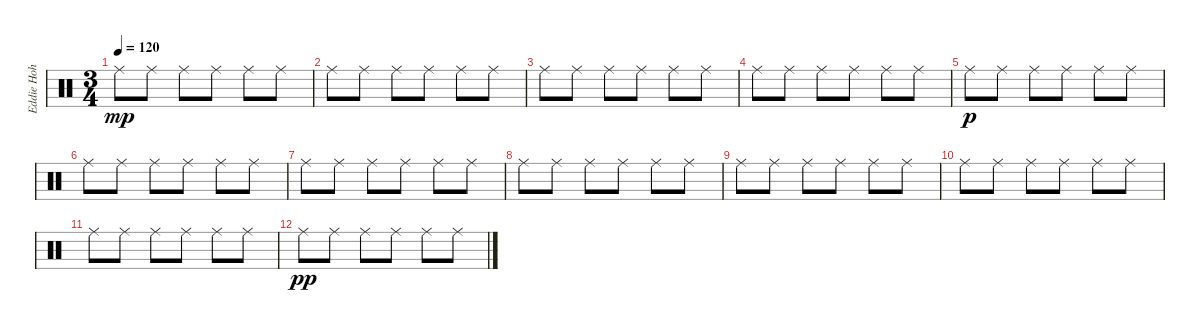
\track ("Eddie Hoh" "Eddie Hoh") {instrument percussion}
\staff {score}
\articulation defaults
\ts (3 4)
\tempo 120
\clef neutral
\ks c "Ride (middle)".8{dy mp} "Ride (middle)".8 "Ride (middle)".8 "Ride (middle)".8 "Ride (middle)".8 "Ride (middle)".8
|
"Ride (middle)".8 "Ride (middle)".8 "Ride (middle)".8 "Ride (middle)".8 "Ride (middle)".8 "Ride (middle)".8 |
"Ride (middle)".8 "Ride (middle)".8 "Ride (middle)".8 "Ride (middle)".8 "Ride (middle)".8 "Ride (middle)".8 |
"Ride (middle)".8 "Ride (middle)".8 "Ride (middle)".8 "Ride (middle)".8 "Ride (middle)".8 "Ride (middle)".8 |
"Ride (middle)".8{dy p} "Ride (middle)".8 "Ride (middle)".8 "Ride (middle)".8 "Ride (middle)".8 "Ride (middle)".8 |
"Ride (middle)".8 "Ride (middle)".8 "Ride (middle)".8 "Ride (middle)".8 "Ride (middle)".8 "Ride (middle)".8 |
"Ride (middle)".8 "Ride (middle)".8 "Ride (middle)".8 "Ride (middle)".8 "Ride (middle)".8 "Ride (middle)".8 |
"Ride (middle)".8 "Ride (middle)".8 "Ride (middle)".8 "Ride (middle)".8 "Ride (middle)".8 "Ride (middle)".8 |
"Ride (middle)".8 "Ride (middle)".8 "Ride (middle)".8 "Ride (middle)".8 "Ride (middle)".8 "Ride (middle)".8 |
"Ride (middle)".8 "Ride (middle)".8 "Ride (middle)".8 "Ride (middle)".8 "Ride (middle)".8 "Ride (middle)".8 |
"Ride (middle)".8 "Ride (middle)".8 "Ride (middle)".8 "Ride (middle)".8 "Ride (middle)".8 "Ride (middle)".8 |
"Ride (middle)".8{dy pp} "Ride (middle)".8 "Ride (middle)".8 "Ride (middle)".8 "Ride (middle)".8 "Ride (middle)".8
